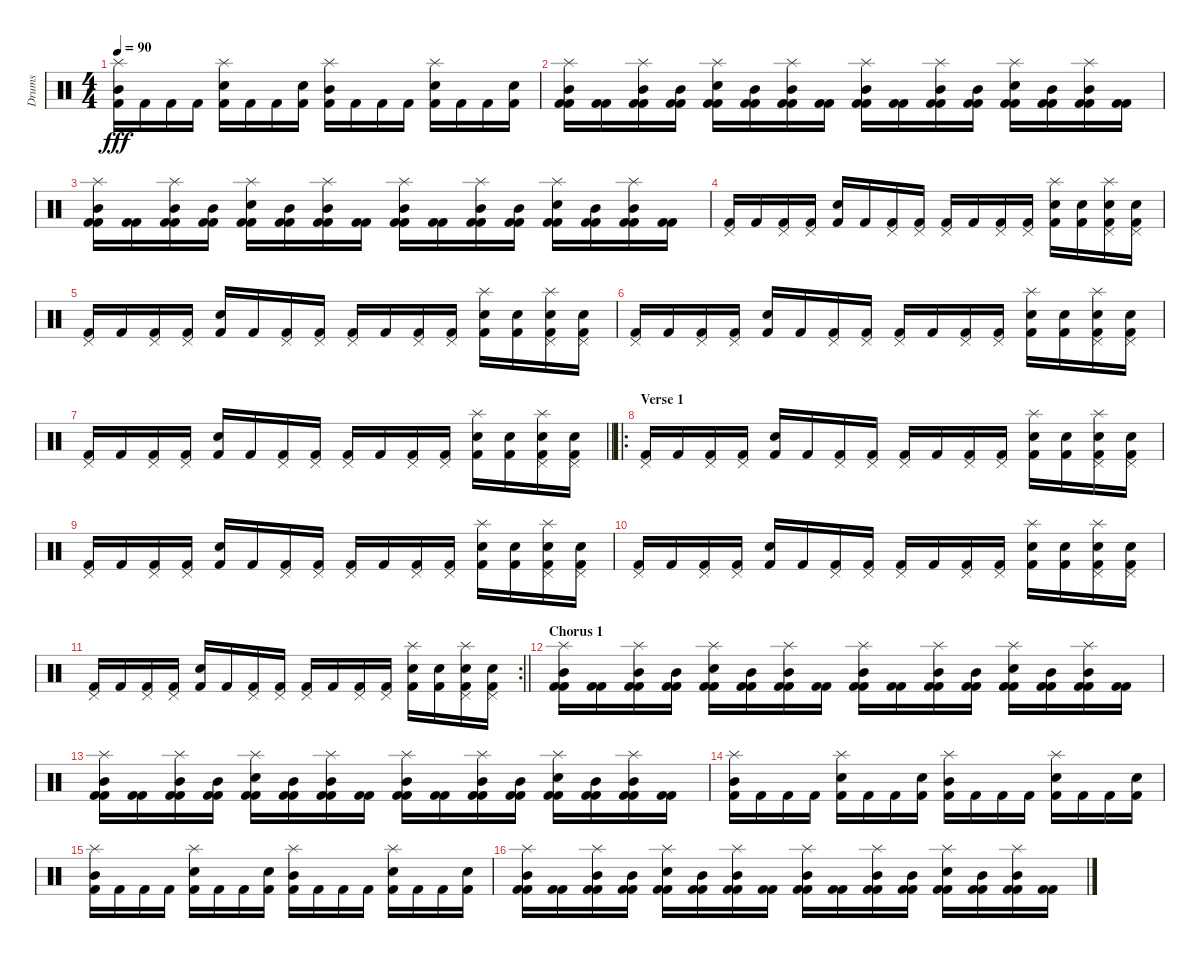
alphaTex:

\track ("Drums" "Drums") {instrument percussion}
\staff {score}
\articulation defaults
\ts (4 4)
\tempo 90
\clef neutral
\ks c
("Splash (hit)" "Mid Tom (hit)" "Kick (hit) 2").16{dy fff} "Kick (hit) 2".16 "Kick (hit) 2".16 "Kick (hit) 2".16 ("Splash (hit)" "Electric Snare (hit)" "Kick (hit) 2").16 "Kick (hit) 2".16 "Kick (hit) 2".16 ("Electric Snare (hit)" "Kick (hit) 2").16 ("Splash (hit)" "Mid Tom (hit)" "Kick (hit) 2").16 "Kick (hit) 2".16 "Kick (hit) 2".16 "Kick (hit) 2".16 ("Splash (hit)" "Electric Snare (hit)" "Kick (hit) 2").16 "Kick (hit) 2".16 "Kick (hit) 2".16 ("Electric Snare (hit)" "Kick (hit) 2").16 |
("Kick (hit) 2" "Splash (hit)" "Mid Tom (hit)" "Kick (hit) 2").16 ("Kick (hit) 2" "Kick (hit) 2").16 ("Kick (hit) 2" "Splash (hit)" "Mid Tom (hit)" "Kick (hit) 2").16 ("Kick (hit) 2" "Mid Tom (hit)" "Kick (hit) 2").16 ("Kick (hit) 2" "Splash (hit)" "Electric Snare (hit)" "Kick (hit) 2").16 ("Kick (hit) 2" "Mid Tom (hit)" "Kick (hit) 2").16 ("Kick (hit) 2" "Splash (hit)" "Mid Tom (hit)" "Kick (hit) 2").16 ("Kick (hit) 2" "Kick (hit) 2").16 ("Kick (hit) 2" "Splash (hit)" "Mid Tom (hit)" "Kick (hit) 2").16 ("Kick (hit) 2" "Kick (hit) 2").16 ("Kick (hit) 2" "Splash (hit)" "Mid Tom (hit)" "Kick (hit) 2").16 ("Kick (hit) 2" "Mid Tom (hit)" "Kick (hit) 2").16 ("Kick (hit) 2" "Splash (hit)" "Electric Snare (hit)" "Kick (hit) 2").16 ("Kick (hit) 2" "Mid Tom (hit)" "Kick (hit) 2").16 ("Kick (hit) 2" "Splash (hit)" "Mid Tom (hit)" "Kick (hit) 2").16 ("Kick (hit) 2" "Kick (hit) 2").16 |
("Kick (hit) 2" "Splash (hit)" "Mid Tom (hit)" "Kick (hit) 2").16 ("Kick (hit) 2" "Kick (hit) 2").16 ("Kick (hit) 2" "Splash (hit)" "Mid Tom (hit)" "Kick (hit) 2").16 ("Kick (hit) 2" "Mid Tom (hit)" "Kick (hit) 2").16 ("Kick (hit) 2" "Splash (hit)" "Electric Snare (hit)" "Kick (hit) 2").16 ("Kick (hit) 2" "Mid Tom (hit)" "Kick (hit) 2").16 ("Kick (hit) 2" "Splash (hit)" "Mid Tom (hit)" "Kick (hit) 2").16 ("Kick (hit) 2" "Kick (hit) 2").16 ("Kick (hit) 2" "Splash (hit)" "Mid Tom (hit)" "Kick (hit) 2").16 ("Kick (hit) 2" "Kick (hit) 2").16 ("Kick (hit) 2" "Splash (hit)" "Mid Tom (hit)" "Kick (hit) 2").16 ("Kick (hit) 2" "Mid Tom (hit)" "Kick (hit) 2").16 ("Kick (hit) 2" "Splash (hit)" "Electric Snare (hit)" "Kick (hit) 2").16 ("Kick (hit) 2" "Mid Tom (hit)" "Kick (hit) 2").16 ("Kick (hit) 2" "Splash (hit)" "Mid Tom (hit)" "Kick (hit) 2").16 ("Kick (hit) 2" "Kick (hit) 2").16 |
("Pedal Hi-Hat (hit)" "Kick (hit) 2").16 "Kick (hit) 2".16 ("Pedal Hi-Hat (hit)" "Kick (hit) 2").16 ("Pedal Hi-Hat (hit)" "Kick (hit) 2").16 ("Electric Snare (hit)" "Kick (hit) 2").16 "Kick (hit) 2".16 ("Pedal Hi-Hat (hit)" "Kick (hit) 2").16 ("Pedal Hi-Hat (hit)" "Kick (hit) 2").16 ("Pedal Hi-Hat (hit)" "Kick (hit) 2").16 "Kick (hit) 2".16 ("Pedal Hi-Hat (hit)" "Kick (hit) 2").16 ("Pedal Hi-Hat (hit)" "Kick (hit) 2").16 ("Splash (hit)" "Electric Snare (hit)" "Kick (hit) 2").16 ("Electric Snare (hit)" "Kick (hit) 2").16 ("Splash (hit)" "Pedal Hi-Hat (hit)" "Electric Snare (hit)" "Kick (hit) 2").16 ("Pedal Hi-Hat (hit)" "Electric Snare (hit)" "Kick (hit) 2").16 |
("Pedal Hi-Hat (hit)" "Kick (hit) 2").16 "Kick (hit) 2".16 ("Pedal Hi-Hat (hit)" "Kick (hit) 2").16 ("Pedal Hi-Hat (hit)" "Kick (hit) 2").16 ("Electric Snare (hit)" "Kick (hit) 2").16 "Kick (hit) 2".16 ("Pedal Hi-Hat (hit)" "Kick (hit) 2").16 ("Pedal Hi-Hat (hit)" "Kick (hit) 2").16 ("Pedal Hi-Hat (hit)" "Kick (hit) 2").16 "Kick (hit) 2".16 ("Pedal Hi-Hat (hit)" "Kick (hit) 2").16 ("Pedal Hi-Hat (hit)" "Kick (hit) 2").16 ("Splash (hit)" "Electric Snare (hit)" "Kick (hit) 2").16 ("Electric Snare (hit)" "Kick (hit) 2").16 ("Splash (hit)" "Pedal Hi-Hat (hit)" "Electric Snare (hit)" "Kick (hit) 2").16 ("Pedal Hi-Hat (hit)" "Electric Snare (hit)" "Kick (hit) 2").16 |
("Pedal Hi-Hat (hit)" "Kick (hit) 2").16 "Kick (hit) 2".16 ("Pedal Hi-Hat (hit)" "Kick (hit) 2").16 ("Pedal Hi-Hat (hit)" "Kick (hit) 2").16 ("Electric Snare (hit)" "Kick (hit) 2").16 "Kick (hit) 2".16 ("Pedal Hi-Hat (hit)" "Kick (hit) 2").16 ("Pedal Hi-Hat (hit)" "Kick (hit) 2").16 ("Pedal Hi-Hat (hit)" "Kick (hit) 2").16 "Kick (hit) 2".16 ("Pedal Hi-Hat (hit)" "Kick (hit) 2").16 ("Pedal Hi-Hat (hit)" "Kick (hit) 2").16 ("Splash (hit)" "Electric Snare (hit)" "Kick (hit) 2").16 ("Electric Snare (hit)" "Kick (hit) 2").16 ("Splash (hit)" "Pedal Hi-Hat (hit)" "Electric Snare (hit)" "Kick (hit) 2").16 ("Pedal Hi-Hat (hit)" "Electric Snare (hit)" "Kick (hit) 2").16 |
\barLineRight lightlight
("Pedal Hi-Hat (hit)" "Kick (hit) 2").16 "Kick (hit) 2".16 ("Pedal Hi-Hat (hit)" "Kick (hit) 2").16 ("Pedal Hi-Hat (hit)" "Kick (hit) 2").16 ("Electric Snare (hit)" "Kick (hit) 2").16 "Kick (hit) 2".16 ("Pedal Hi-Hat (hit)" "Kick (hit) 2").16 ("Pedal Hi-Hat (hit)" "Kick (hit) 2").16 ("Pedal Hi-Hat (hit)" "Kick (hit) 2").16 "Kick (hit) 2".16 ("Pedal Hi-Hat (hit)" "Kick (hit) 2").16 ("Pedal Hi-Hat (hit)" "Kick (hit) 2").16 ("Splash (hit)" "Electric Snare (hit)" "Kick (hit) 2").16 ("Electric Snare (hit)" "Kick (hit) 2").16 ("Splash (hit)" "Pedal Hi-Hat (hit)" "Electric Snare (hit)" "Kick (hit) 2").16 ("Pedal Hi-Hat (hit)" "Electric Snare (hit)" "Kick (hit) 2").16 |
\ro
\section ("" "Verse 1")
("Pedal Hi-Hat (hit)" "Kick (hit) 2").16 "Kick (hit) 2".16 ("Pedal Hi-Hat (hit)" "Kick (hit) 2").16 ("Pedal Hi-Hat (hit)" "Kick (hit) 2").16 ("Electric Snare (hit)" "Kick (hit) 2").16 "Kick (hit) 2".16 ("Pedal Hi-Hat (hit)" "Kick (hit) 2").16 ("Pedal Hi-Hat (hit)" "Kick (hit) 2").16 ("Pedal Hi-Hat (hit)" "Kick (hit) 2").16 "Kick (hit) 2".16 ("Pedal Hi-Hat (hit)" "Kick (hit) 2").16 ("Pedal Hi-Hat (hit)" "Kick (hit) 2").16 ("Splash (hit)" "Electric Snare (hit)" "Kick (hit) 2").16 ("Electric Snare (hit)" "Kick (hit) 2").16 ("Splash (hit)" "Pedal Hi-Hat (hit)" "Electric Snare (hit)" "Kick (hit) 2").16 ("Pedal Hi-Hat (hit)" "Electric Snare (hit)" "Kick (hit) 2").16 |
("Pedal Hi-Hat (hit)" "Kick (hit) 2").16 "Kick (hit) 2".16 ("Pedal Hi-Hat (hit)" "Kick (hit) 2").16 ("Pedal Hi-Hat (hit)" "Kick (hit) 2").16 ("Electric Snare (hit)" "Kick (hit) 2").16 "Kick (hit) 2".16 ("Pedal Hi-Hat (hit)" "Kick (hit) 2").16 ("Pedal Hi-Hat (hit)" "Kick (hit) 2").16 ("Pedal Hi-Hat (hit)" "Kick (hit) 2").16 "Kick (hit) 2".16 ("Pedal Hi-Hat (hit)" "Kick (hit) 2").16 ("Pedal Hi-Hat (hit)" "Kick (hit) 2").16 ("Splash (hit)" "Electric Snare (hit)" "Kick (hit) 2").16 ("Electric Snare (hit)" "Kick (hit) 2").16 ("Splash (hit)" "Pedal Hi-Hat (hit)" "Electric Snare (hit)" "Kick (hit) 2").16 ("Pedal Hi-Hat (hit)" "Electric Snare (hit)" "Kick (hit) 2").16 |
("Pedal Hi-Hat (hit)" "Kick (hit) 2").16 "Kick (hit) 2".16 ("Pedal Hi-Hat (hit)" "Kick (hit) 2").16 ("Pedal Hi-Hat (hit)" "Kick (hit) 2").16 ("Electric Snare (hit)" "Kick (hit) 2").16 "Kick (hit) 2".16 ("Pedal Hi-Hat (hit)" "Kick (hit) 2").16 ("Pedal Hi-Hat (hit)" "Kick (hit) 2").16 ("Pedal Hi-Hat (hit)" "Kick (hit) 2").16 "Kick (hit) 2".16 ("Pedal Hi-Hat (hit)" "Kick (hit) 2").16 ("Pedal Hi-Hat (hit)" "Kick (hit) 2").16 ("Splash (hit)" "Electric Snare (hit)" "Kick (hit) 2").16 ("Electric Snare (hit)" "Kick (hit) 2").16 ("Splash (hit)" "Pedal Hi-Hat (hit)" "Electric Snare (hit)" "Kick (hit) 2").16 ("Pedal Hi-Hat (hit)" "Electric Snare (hit)" "Kick (hit) 2").16 |
\rc 2
\barLineRight lightlight
("Pedal Hi-Hat (hit)" "Kick (hit) 2").16 "Kick (hit) 2".16 ("Pedal Hi-Hat (hit)" "Kick (hit) 2").16 ("Pedal Hi-Hat (hit)" "Kick (hit) 2").16 ("Electric Snare (hit)" "Kick (hit) 2").16 "Kick (hit) 2".16 ("Pedal Hi-Hat (hit)" "Kick (hit) 2").16 ("Pedal Hi-Hat (hit)" "Kick (hit) 2").16 ("Pedal Hi-Hat (hit)" "Kick (hit) 2").16 "Kick (hit) 2".16 ("Pedal Hi-Hat (hit)" "Kick (hit) 2").16 ("Pedal Hi-Hat (hit)" "Kick (hit) 2").16 ("Splash (hit)" "Electric Snare (hit)" "Kick (hit) 2").16 ("Electric Snare (hit)" "Kick (hit) 2").16 ("Splash (hit)" "Pedal Hi-Hat (hit)" "Electric Snare (hit)" "Kick (hit) 2").16 ("Pedal Hi-Hat (hit)" "Electric Snare (hit)" "Kick (hit) 2").16 |
\section ("" "Chorus 1")
("Kick (hit) 2" "Splash (hit)" "Mid Tom (hit)" "Kick (hit) 2").16 ("Kick (hit) 2" "Kick (hit) 2").16 ("Kick (hit) 2" "Splash (hit)" "Mid Tom (hit)" "Kick (hit) 2").16 ("Kick (hit) 2" "Mid Tom (hit)" "Kick (hit) 2").16 ("Kick (hit) 2" "Splash (hit)" "Electric Snare (hit)" "Kick (hit) 2").16 ("Kick (hit) 2" "Mid Tom (hit)" "Kick (hit) 2").16 ("Kick (hit) 2" "Splash (hit)" "Mid Tom (hit)" "Kick (hit) 2").16 ("Kick (hit) 2" "Kick (hit) 2").16 ("Kick (hit) 2" "Splash (hit)" "Mid Tom (hit)" "Kick (hit) 2").16 ("Kick (hit) 2" "Kick (hit) 2").16 ("Kick (hit) 2" "Splash (hit)" "Mid Tom (hit)" "Kick (hit) 2").16 ("Kick (hit) 2" "Mid Tom (hit)" "Kick (hit) 2").16 ("Kick (hit) 2" "Splash (hit)" "Electric Snare (hit)" "Kick (hit) 2").16 ("Kick (hit) 2" "Mid Tom (hit)" "Kick (hit) 2").16 ("Kick (hit) 2" "Splash (hit)" "Mid Tom (hit)" "Kick (hit) 2").16 ("Kick (hit) 2" "Kick (hit) 2").16 |
("Kick (hit) 2" "Splash (hit)" "Mid Tom (hit)" "Kick (hit) 2").16 ("Kick (hit) 2" "Kick (hit) 2").16 ("Kick (hit) 2" "Splash (hit)" "Mid Tom (hit)" "Kick (hit) 2").16 ("Kick (hit) 2" "Mid Tom (hit)" "Kick (hit) 2").16 ("Kick (hit) 2" "Splash (hit)" "Electric Snare (hit)" "Kick (hit) 2").16 ("Kick (hit) 2" "Mid Tom (hit)" "Kick (hit) 2").16 ("Kick (hit) 2" "Splash (hit)" "Mid Tom (hit)" "Kick (hit) 2").16 ("Kick (hit) 2" "Kick (hit) 2").16 ("Kick (hit) 2" "Splash (hit)" "Mid Tom (hit)" "Kick (hit) 2").16 ("Kick (hit) 2" "Kick (hit) 2").16 ("Kick (hit) 2" "Splash (hit)" "Mid Tom (hit)" "Kick (hit) 2").16 ("Kick (hit) 2" "Mid Tom (hit)" "Kick (hit) 2").16 ("Kick (hit) 2" "Splash (hit)" "Electric Snare (hit)" "Kick (hit) 2").16 ("Kick (hit) 2" "Mid Tom (hit)" "Kick (hit) 2").16 ("Kick (hit) 2" "Splash (hit)" "Mid Tom (hit)" "Kick (hit) 2").16 ("Kick (hit) 2" "Kick (hit) 2").16 |
("Splash (hit)" "Mid Tom (hit)" "Kick (hit) 2").16 "Kick (hit) 2".16 "Kick (hit) 2".16 "Kick (hit) 2".16 ("Splash (hit)" "Electric Snare (hit)" "Kick (hit) 2").16 "Kick (hit) 2".16 "Kick (hit) 2".16 ("Electric Snare (hit)" "Kick (hit) 2").16 ("Splash (hit)" "Mid Tom (hit)" "Kick (hit) 2").16 "Kick (hit) 2".16 "Kick (hit) 2".16 "Kick (hit) 2".16 ("Splash (hit)" "Electric Snare (hit)" "Kick (hit) 2").16 "Kick (hit) 2".16 "Kick (hit) 2".16 ("Electric Snare (hit)" "Kick (hit) 2").16 |
("Splash (hit)" "Mid Tom (hit)" "Kick (hit) 2").16 "Kick (hit) 2".16 "Kick (hit) 2".16 "Kick (hit) 2".16 ("Splash (hit)" "Electric Snare (hit)" "Kick (hit) 2").16 "Kick (hit) 2".16 "Kick (hit) 2".16 ("Electric Snare (hit)" "Kick (hit) 2").16 ("Splash (hit)" "Mid Tom (hit)" "Kick (hit) 2").16 "Kick (hit) 2".16 "Kick (hit) 2".16 "Kick (hit) 2".16 ("Splash (hit)" "Electric Snare (hit)" "Kick (hit) 2").16 "Kick (hit) 2".16 "Kick (hit) 2".16 ("Electric Snare (hit)" "Kick (hit) 2").16 |
("Kick (hit) 2" "Splash (hit)" "Mid Tom (hit)" "Kick (hit) 2").16 ("Kick (hit) 2" "Kick (hit) 2").16 ("Kick (hit) 2" "Splash (hit)" "Mid Tom (hit)" "Kick (hit) 2").16 ("Kick (hit) 2" "Mid Tom (hit)" "Kick (hit) 2").16 ("Kick (hit) 2" "Splash (hit)" "Electric Snare (hit)" "Kick (hit) 2").16 ("Kick (hit) 2" "Mid Tom (hit)" "Kick (hit) 2").16 ("Kick (hit) 2" "Splash (hit)" "Mid Tom (hit)" "Kick (hit) 2").16 ("Kick (hit) 2" "Kick (hit) 2").16 ("Kick (hit) 2" "Splash (hit)" "Mid Tom (hit)" "Kick (hit) 2").16 ("Kick (hit) 2" "Kick (hit) 2").16 ("Kick (hit) 2" "Splash (hit)" "Mid Tom (hit)" "Kick (hit) 2").16 ("Kick (hit) 2" "Mid Tom (hit)" "Kick (hit) 2").16 ("Kick (hit) 2" "Splash (hit)" "Electric Snare (hit)" "Kick (hit) 2").16 ("Kick (hit) 2" "Mid Tom (hit)" "Kick (hit) 2").16 ("Kick (hit) 2" "Splash (hit)" "Mid Tom (hit)" "Kick (hit) 2").16 ("Kick (hit) 2" "Kick (hit) 2").16
